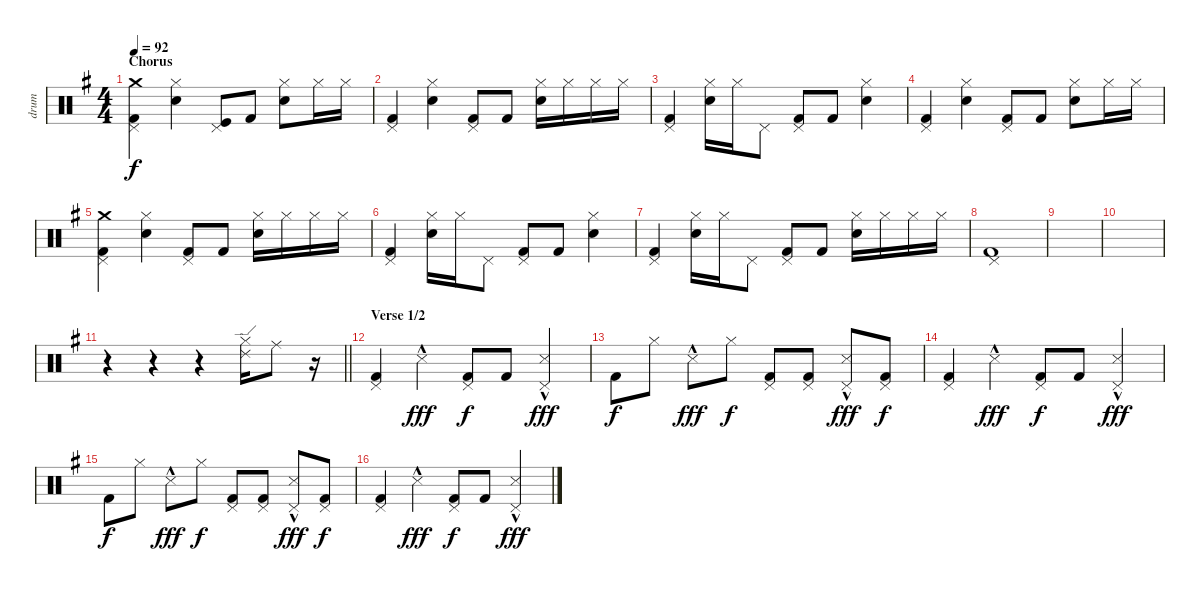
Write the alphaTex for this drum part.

\track ("drum" "drum") {instrument percussion}
\staff {score}
\articulation defaults
\ts (4 4)
\section ("" "Chorus")
\tempo 92
\clef neutral
\ks g
("Kick (hit) 2" "Pedal Hi-Hat (hit)" "Crash medium (hit)").4{dy f} ("Snare (hit) 2" "Hi-Hat (closed)").4 ("Kick (hit)" "Pedal Hi-Hat (hit)").8 "Kick (hit) 2".8 ("Snare (hit) 2" "Hi-Hat (closed)").8 "Hi-Hat (closed)".16 "Hi-Hat (closed)".16 |
("Kick (hit) 2" "Pedal Hi-Hat (hit)").4 ("Snare (hit) 2" "Hi-Hat (closed)").4 ("Kick (hit) 2" "Pedal Hi-Hat (hit)").8 "Kick (hit) 2".8 ("Snare (hit) 2" "Hi-Hat (closed)").16 "Hi-Hat (closed)".16 "Hi-Hat (closed)".16 "Hi-Hat (closed)".16 |
("Kick (hit) 2" "Pedal Hi-Hat (hit)").4 ("Snare (hit) 2" "Hi-Hat (closed)").16 "Hi-Hat (closed)".16 "Pedal Hi-Hat (hit)".8 ("Kick (hit) 2" "Pedal Hi-Hat (hit)").8 "Kick (hit) 2".8 ("Snare (hit) 2" "Hi-Hat (closed)").4 |
("Kick (hit) 2" "Pedal Hi-Hat (hit)").4 ("Snare (hit) 2" "Hi-Hat (closed)").4 ("Kick (hit) 2" "Pedal Hi-Hat (hit)").8 "Kick (hit) 2".8 ("Snare (hit) 2" "Hi-Hat (closed)").8 "Hi-Hat (closed)".16 "Hi-Hat (closed)".16 |
("Kick (hit) 2" "Pedal Hi-Hat (hit)" "Crash medium (hit)").4 ("Snare (hit) 2" "Hi-Hat (closed)").4 ("Kick (hit) 2" "Pedal Hi-Hat (hit)").8 "Kick (hit) 2".8 ("Snare (hit) 2" "Hi-Hat (closed)").16 "Hi-Hat (closed)".16 "Hi-Hat (closed)".16 "Hi-Hat (closed)".16 |
("Kick (hit) 2" "Pedal Hi-Hat (hit)").4 ("Snare (hit) 2" "Hi-Hat (closed)").16 "Hi-Hat (closed)".16 "Pedal Hi-Hat (hit)".8 ("Kick (hit) 2" "Pedal Hi-Hat (hit)").8 "Kick (hit) 2".8 ("Snare (hit) 2" "Hi-Hat (closed)").4 |
("Kick (hit) 2" "Pedal Hi-Hat (hit)").4 ("Snare (hit) 2" "Hi-Hat (closed)").16 "Hi-Hat (closed)".16 "Pedal Hi-Hat (hit)".8 ("Kick (hit) 2" "Pedal Hi-Hat (hit)").8 "Kick (hit) 2".8 ("Snare (hit) 2" "Hi-Hat (closed)").16 "Hi-Hat (closed)".16 "Hi-Hat (closed)".16 "Hi-Hat (closed)".16 |
("Kick (hit) 2" "Pedal Hi-Hat (hit)").1 |
|
|
\barLineRight lightlight
r.4 r.4 r.4 ("Hi-Hat (closed)" "Ride (edge) 2").16 "Ride (middle)".8 r.16 |
\section ("" "Verse 1/2")
("Kick (hit) 2" "Pedal Hi-Hat (hit)").4 "Snare (side stick) 3"{hac}.4{dy fff} ("Kick (hit) 2" "Pedal Hi-Hat (hit)").8{dy f} "Kick (hit) 2".8 ("Pedal Hi-Hat (hit)"{hac} "Snare (side stick) 3"{hac}).4{dy fff} |
"Kick (hit) 2".8{dy f} "Hi-Hat (closed)".8 "Snare (side stick) 3"{hac}.8{dy fff} "Hi-Hat (closed)".8{dy f} ("Kick (hit) 2" "Pedal Hi-Hat (hit)").8 ("Kick (hit) 2" "Pedal Hi-Hat (hit)").8 ("Pedal Hi-Hat (hit)"{hac} "Snare (side stick) 3"{hac}).8{dy fff} ("Kick (hit) 2" "Pedal Hi-Hat (hit)").8{dy f} |
("Kick (hit) 2" "Pedal Hi-Hat (hit)").4 "Snare (side stick) 3"{hac}.4{dy fff} ("Kick (hit) 2" "Pedal Hi-Hat (hit)").8{dy f} "Kick (hit) 2".8 ("Pedal Hi-Hat (hit)"{hac} "Snare (side stick) 3"{hac}).4{dy fff} |
"Kick (hit) 2".8{dy f} "Hi-Hat (closed)".8 "Snare (side stick) 3"{hac}.8{dy fff} "Hi-Hat (closed)".8{dy f} ("Kick (hit) 2" "Pedal Hi-Hat (hit)").8 ("Kick (hit) 2" "Pedal Hi-Hat (hit)").8 ("Pedal Hi-Hat (hit)"{hac} "Snare (side stick) 3"{hac}).8{dy fff} ("Kick (hit) 2" "Pedal Hi-Hat (hit)").8{dy f} |
("Kick (hit) 2" "Pedal Hi-Hat (hit)").4 "Snare (side stick) 3"{hac}.4{dy fff} ("Kick (hit) 2" "Pedal Hi-Hat (hit)").8{dy f} "Kick (hit) 2".8 ("Pedal Hi-Hat (hit)"{hac} "Snare (side stick) 3"{hac}).4{dy fff}
